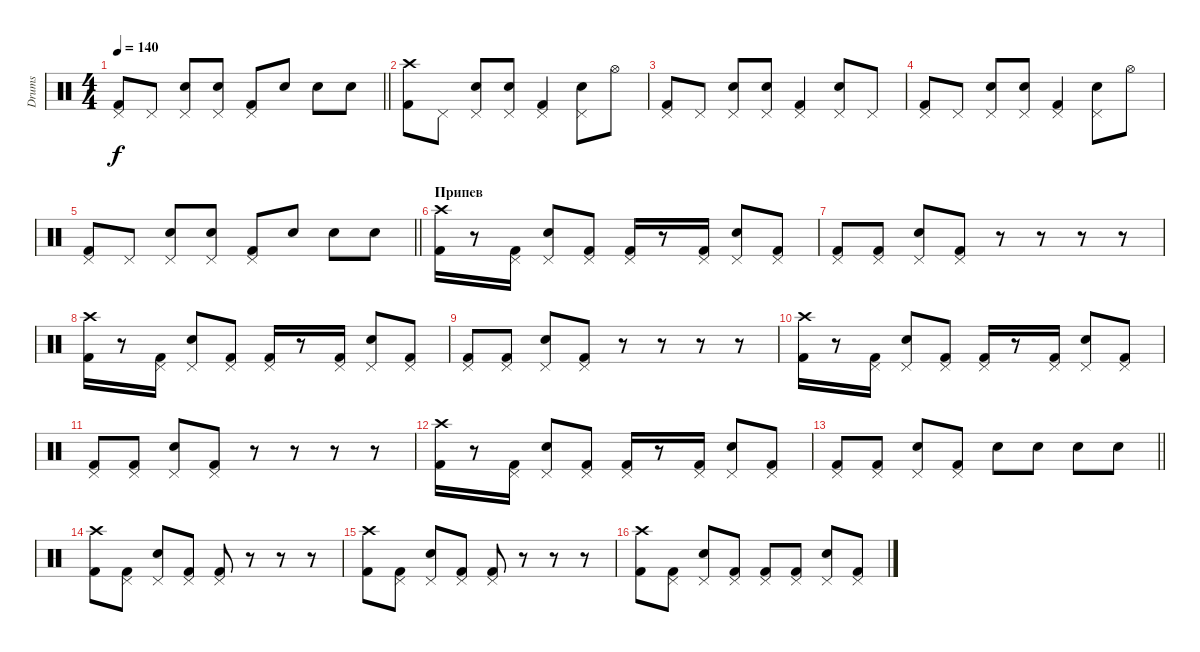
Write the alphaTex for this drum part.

\track ("Drums" "Drums") {instrument percussion}
\staff {score}
\articulation defaults
\ts (4 4)
\tempo 140
\clef neutral
\barLineRight lightlight
\ks c
("Kick (hit) 2" "Pedal Hi-Hat (hit)").8{dy f} "Pedal Hi-Hat (hit)".8 ("Snare (hit) 2" "Pedal Hi-Hat (hit)").8 ("Snare (hit) 2" "Pedal Hi-Hat (hit)").8 ("Kick (hit) 2" "Pedal Hi-Hat (hit)").8 "Snare (hit) 2".8 "Snare (hit) 2".8 "Snare (hit) 2".8 |
("Crash high (hit)" "Kick (hit) 2").8 "Pedal Hi-Hat (hit)".8 ("Snare (hit) 2" "Pedal Hi-Hat (hit)").8 ("Snare (hit) 2" "Pedal Hi-Hat (hit)").8 ("Kick (hit) 2" "Pedal Hi-Hat (hit)").4 ("Snare (hit) 2" "Pedal Hi-Hat (hit)").8 "Hi-Hat (open)".8 |
("Kick (hit) 2" "Pedal Hi-Hat (hit)").8 "Pedal Hi-Hat (hit)".8 ("Snare (hit) 2" "Pedal Hi-Hat (hit)").8 ("Snare (hit) 2" "Pedal Hi-Hat (hit)").8 ("Kick (hit) 2" "Pedal Hi-Hat (hit)").4 ("Snare (hit) 2" "Pedal Hi-Hat (hit)").8 "Pedal Hi-Hat (hit)".8 |
("Kick (hit) 2" "Pedal Hi-Hat (hit)").8 "Pedal Hi-Hat (hit)".8 ("Snare (hit) 2" "Pedal Hi-Hat (hit)").8 ("Snare (hit) 2" "Pedal Hi-Hat (hit)").8 ("Kick (hit) 2" "Pedal Hi-Hat (hit)").4 ("Snare (hit) 2" "Pedal Hi-Hat (hit)").8 "Hi-Hat (open)".8 |
\barLineRight lightlight
("Kick (hit) 2" "Pedal Hi-Hat (hit)").8 "Pedal Hi-Hat (hit)".8 ("Snare (hit) 2" "Pedal Hi-Hat (hit)").8 ("Snare (hit) 2" "Pedal Hi-Hat (hit)").8 ("Kick (hit) 2" "Pedal Hi-Hat (hit)").8 "Snare (hit) 2".8 "Snare (hit) 2".8 "Snare (hit) 2".8 |
\section ("" "Припев")
("Kick (hit) 2" "Crash high (hit)").16 r.8 ("Kick (hit) 2" "Pedal Hi-Hat (hit)").16 ("Snare (hit) 2" "Pedal Hi-Hat (hit)").8 ("Kick (hit) 2" "Pedal Hi-Hat (hit)").8 ("Kick (hit) 2" "Pedal Hi-Hat (hit)").16 r.8 ("Kick (hit) 2" "Pedal Hi-Hat (hit)").16 ("Snare (hit) 2" "Pedal Hi-Hat (hit)").8 ("Kick (hit) 2" "Pedal Hi-Hat (hit)").8 |
("Kick (hit) 2" "Pedal Hi-Hat (hit)").8 ("Kick (hit) 2" "Pedal Hi-Hat (hit)").8 ("Snare (hit) 2" "Pedal Hi-Hat (hit)").8 ("Kick (hit) 2" "Pedal Hi-Hat (hit)").8 r.8 r.8 r.8 r.8 |
("Kick (hit) 2" "Crash high (hit)").16 r.8 ("Kick (hit) 2" "Pedal Hi-Hat (hit)").16 ("Snare (hit) 2" "Pedal Hi-Hat (hit)").8 ("Kick (hit) 2" "Pedal Hi-Hat (hit)").8 ("Kick (hit) 2" "Pedal Hi-Hat (hit)").16 r.8 ("Kick (hit) 2" "Pedal Hi-Hat (hit)").16 ("Snare (hit) 2" "Pedal Hi-Hat (hit)").8 ("Kick (hit) 2" "Pedal Hi-Hat (hit)").8 |
("Kick (hit) 2" "Pedal Hi-Hat (hit)").8 ("Kick (hit) 2" "Pedal Hi-Hat (hit)").8 ("Snare (hit) 2" "Pedal Hi-Hat (hit)").8 ("Kick (hit) 2" "Pedal Hi-Hat (hit)").8 r.8 r.8 r.8 r.8 |
("Kick (hit) 2" "Crash high (hit)").16 r.8 ("Kick (hit) 2" "Pedal Hi-Hat (hit)").16 ("Snare (hit) 2" "Pedal Hi-Hat (hit)").8 ("Kick (hit) 2" "Pedal Hi-Hat (hit)").8 ("Kick (hit) 2" "Pedal Hi-Hat (hit)").16 r.8 ("Kick (hit) 2" "Pedal Hi-Hat (hit)").16 ("Snare (hit) 2" "Pedal Hi-Hat (hit)").8 ("Kick (hit) 2" "Pedal Hi-Hat (hit)").8 |
("Kick (hit) 2" "Pedal Hi-Hat (hit)").8 ("Kick (hit) 2" "Pedal Hi-Hat (hit)").8 ("Snare (hit) 2" "Pedal Hi-Hat (hit)").8 ("Kick (hit) 2" "Pedal Hi-Hat (hit)").8 r.8 r.8 r.8 r.8 |
("Kick (hit) 2" "Crash high (hit)").16 r.8 ("Kick (hit) 2" "Pedal Hi-Hat (hit)").16 ("Snare (hit) 2" "Pedal Hi-Hat (hit)").8 ("Kick (hit) 2" "Pedal Hi-Hat (hit)").8 ("Kick (hit) 2" "Pedal Hi-Hat (hit)").16 r.8 ("Kick (hit) 2" "Pedal Hi-Hat (hit)").16 ("Snare (hit) 2" "Pedal Hi-Hat (hit)").8 ("Kick (hit) 2" "Pedal Hi-Hat (hit)").8 |
\barLineRight lightlight
("Kick (hit) 2" "Pedal Hi-Hat (hit)").8 ("Kick (hit) 2" "Pedal Hi-Hat (hit)").8 ("Snare (hit) 2" "Pedal Hi-Hat (hit)").8 ("Kick (hit) 2" "Pedal Hi-Hat (hit)").8 "Snare (hit) 2".8 "Snare (hit) 2".8 "Snare (hit) 2".8 "Snare (hit) 2".8 |
("Kick (hit) 2" "Crash high (hit)").8 ("Kick (hit) 2" "Pedal Hi-Hat (hit)").8 ("Snare (hit) 2" "Pedal Hi-Hat (hit)").8 ("Kick (hit) 2" "Pedal Hi-Hat (hit)").8 ("Kick (hit) 2" "Pedal Hi-Hat (hit)").8 r.8 r.8 r.8 |
("Kick (hit) 2" "Crash high (hit)").8 ("Kick (hit) 2" "Pedal Hi-Hat (hit)").8 ("Snare (hit) 2" "Pedal Hi-Hat (hit)").8 ("Kick (hit) 2" "Pedal Hi-Hat (hit)").8 ("Kick (hit) 2" "Pedal Hi-Hat (hit)").8 r.8 r.8 r.8 |
("Kick (hit) 2" "Crash high (hit)").8 ("Kick (hit) 2" "Pedal Hi-Hat (hit)").8 ("Snare (hit) 2" "Pedal Hi-Hat (hit)").8 ("Kick (hit) 2" "Pedal Hi-Hat (hit)").8 ("Kick (hit) 2" "Pedal Hi-Hat (hit)").8 ("Kick (hit) 2" "Pedal Hi-Hat (hit)").8 ("Snare (hit) 2" "Pedal Hi-Hat (hit)").8 ("Kick (hit) 2" "Pedal Hi-Hat (hit)").8
